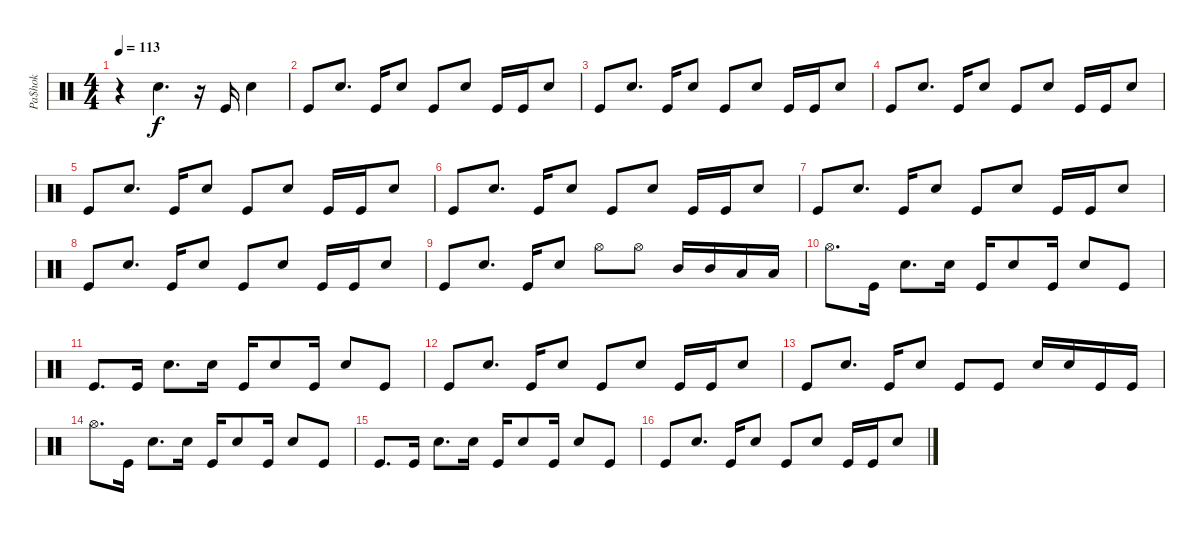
\track ("Pa$hok" "Pa$hok") {instrument percussion}
\staff {score}
\articulation defaults
\ts (4 4)
\tempo 113
\clef neutral
\ks c
r.4{dy f} "Snare (hit) 2".4{d} r.16 "Kick (hit)".16 "Snare (hit) 2".4 |
"Kick (hit)".8 "Snare (hit) 2".8{d} "Kick (hit)".16 "Snare (hit) 2".8 "Kick (hit)".8 "Snare (hit) 2".8 "Kick (hit)".16 "Kick (hit)".16 "Snare (hit) 2".8 |
"Kick (hit)".8 "Snare (hit) 2".8{d} "Kick (hit)".16 "Snare (hit) 2".8 "Kick (hit)".8 "Snare (hit) 2".8 "Kick (hit)".16 "Kick (hit)".16 "Snare (hit) 2".8 |
"Kick (hit)".8 "Snare (hit) 2".8{d} "Kick (hit)".16 "Snare (hit) 2".8 "Kick (hit)".8 "Snare (hit) 2".8 "Kick (hit)".16 "Kick (hit)".16 "Snare (hit) 2".8 |
"Kick (hit)".8 "Snare (hit) 2".8{d} "Kick (hit)".16 "Snare (hit) 2".8 "Kick (hit)".8 "Snare (hit) 2".8 "Kick (hit)".16 "Kick (hit)".16 "Snare (hit) 2".8 |
"Kick (hit)".8 "Snare (hit) 2".8{d} "Kick (hit)".16 "Snare (hit) 2".8 "Kick (hit)".8 "Snare (hit) 2".8 "Kick (hit)".16 "Kick (hit)".16 "Snare (hit) 2".8 |
"Kick (hit)".8 "Snare (hit) 2".8{d} "Kick (hit)".16 "Snare (hit) 2".8 "Kick (hit)".8 "Snare (hit) 2".8 "Kick (hit)".16 "Kick (hit)".16 "Snare (hit) 2".8 |
"Kick (hit)".8 "Snare (hit) 2".8{d} "Kick (hit)".16 "Snare (hit) 2".8 "Kick (hit)".8 "Snare (hit) 2".8 "Kick (hit)".16 "Kick (hit)".16 "Snare (hit) 2".8 |
"Kick (hit)".8 "Snare (hit) 2".8{d} "Kick (hit)".16 "Snare (hit) 2".8 "Hi-Hat (open)".8 "Hi-Hat (open)".8 "Mid Tom (hit)".16 "Mid Tom (hit)".16 "Low Tom (hit)".16 "Low Tom (hit)".16 |
"Hi-Hat (open)".8{d} "Kick (hit)".16 "Snare (hit) 2".8{d} "Snare (hit) 2".16 "Kick (hit)".16 "Snare (hit) 2".8 "Kick (hit)".16 "Snare (hit) 2".8 "Kick (hit)".8 |
"Kick (hit)".8{d} "Kick (hit)".16 "Snare (hit) 2".8{d} "Snare (hit) 2".16 "Kick (hit)".16 "Snare (hit) 2".8 "Kick (hit)".16 "Snare (hit) 2".8 "Kick (hit)".8 |
"Kick (hit)".8 "Snare (hit) 2".8{d} "Kick (hit)".16 "Snare (hit) 2".8 "Kick (hit)".8 "Snare (hit) 2".8 "Kick (hit)".16 "Kick (hit)".16 "Snare (hit) 2".8 |
"Kick (hit)".8 "Snare (hit) 2".8{d} "Kick (hit)".16 "Snare (hit) 2".8 "Kick (hit)".8 "Kick (hit)".8 "Snare (hit) 2".16 "Snare (hit) 2".16 "Kick (hit)".16 "Kick (hit)".16 |
"Hi-Hat (open)".8{d} "Kick (hit)".16 "Snare (hit) 2".8{d} "Snare (hit) 2".16 "Kick (hit)".16 "Snare (hit) 2".8 "Kick (hit)".16 "Snare (hit) 2".8 "Kick (hit)".8 |
"Kick (hit)".8{d} "Kick (hit)".16 "Snare (hit) 2".8{d} "Snare (hit) 2".16 "Kick (hit)".16 "Snare (hit) 2".8 "Kick (hit)".16 "Snare (hit) 2".8 "Kick (hit)".8 |
"Kick (hit)".8 "Snare (hit) 2".8{d} "Kick (hit)".16 "Snare (hit) 2".8 "Kick (hit)".8 "Snare (hit) 2".8 "Kick (hit)".16 "Kick (hit)".16 "Snare (hit) 2".8
